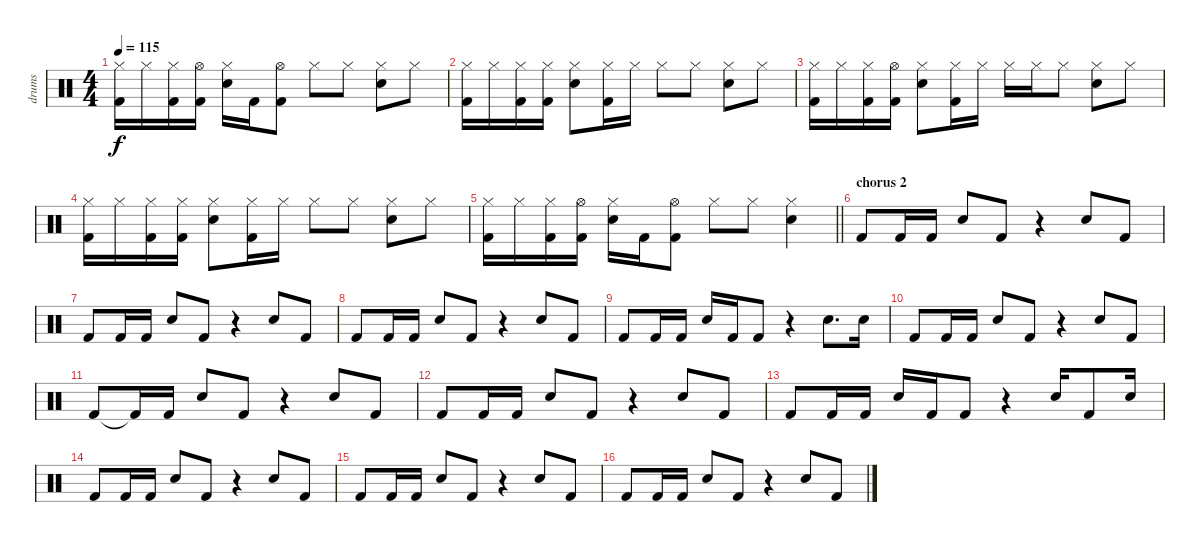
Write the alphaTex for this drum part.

\track ("drums" "drums") {instrument percussion}
\staff {score}
\articulation defaults
\ts (4 4)
\tempo 115
\clef neutral
\ks c
("Hi-Hat (closed)" "Kick (hit) 2").16{dy f} "Hi-Hat (closed)".16 ("Hi-Hat (closed)" "Kick (hit) 2").16 ("Hi-Hat (open)" "Kick (hit) 2").16 ("Hi-Hat (closed)" "Snare (hit) 2").16 "Kick (hit) 2".16 ("Hi-Hat (open)" "Kick (hit) 2").8 "Hi-Hat (closed)".8 "Hi-Hat (closed)".8 ("Hi-Hat (closed)" "Snare (hit) 2").8 "Hi-Hat (closed)".8 |
("Hi-Hat (closed)" "Kick (hit) 2").16 "Hi-Hat (closed)".16 ("Hi-Hat (closed)" "Kick (hit) 2").16 ("Hi-Hat (closed)" "Kick (hit) 2").16 ("Hi-Hat (closed)" "Snare (hit) 2").8 ("Hi-Hat (closed)" "Kick (hit) 2").16 "Hi-Hat (closed)".16 "Hi-Hat (closed)".8 "Hi-Hat (closed)".8 ("Hi-Hat (closed)" "Snare (hit) 2").8 "Hi-Hat (closed)".8 |
("Hi-Hat (closed)" "Kick (hit) 2").16 "Hi-Hat (closed)".16 ("Hi-Hat (closed)" "Kick (hit) 2").16 ("Hi-Hat (open)" "Kick (hit) 2").16 ("Hi-Hat (closed)" "Snare (hit) 2").8 ("Hi-Hat (closed)" "Kick (hit) 2").16 "Hi-Hat (closed)".16 "Hi-Hat (closed)".16 "Hi-Hat (closed)".16 "Hi-Hat (closed)".8 ("Hi-Hat (closed)" "Snare (hit) 2").8 "Hi-Hat (closed)".8 |
("Hi-Hat (closed)" "Kick (hit) 2").16 "Hi-Hat (closed)".16 ("Hi-Hat (closed)" "Kick (hit) 2").16 ("Hi-Hat (closed)" "Kick (hit) 2").16 ("Hi-Hat (closed)" "Snare (hit) 2").8 ("Hi-Hat (closed)" "Kick (hit) 2").16 "Hi-Hat (closed)".16 "Hi-Hat (closed)".8 "Hi-Hat (closed)".8 ("Hi-Hat (closed)" "Snare (hit) 2").8 "Hi-Hat (closed)".8 |
\barLineRight lightlight
("Hi-Hat (closed)" "Kick (hit) 2").16 "Hi-Hat (closed)".16 ("Hi-Hat (closed)" "Kick (hit) 2").16 ("Hi-Hat (open)" "Kick (hit) 2").16 ("Hi-Hat (closed)" "Snare (hit) 2").16 "Kick (hit) 2".16 ("Hi-Hat (open)" "Kick (hit) 2").8 "Hi-Hat (closed)".8 "Hi-Hat (closed)".8 ("Hi-Hat (closed)" "Snare (hit) 2").4 |
\section ("" "chorus 2")
"Kick (hit) 2".8 "Kick (hit) 2".16 "Kick (hit) 2".16 "Snare (hit) 2".8 "Kick (hit) 2".8 r.4 "Snare (hit) 2".8 "Kick (hit) 2".8 |
"Kick (hit) 2".8 "Kick (hit) 2".16 "Kick (hit) 2".16 "Snare (hit) 2".8 "Kick (hit) 2".8 r.4 "Snare (hit) 2".8 "Kick (hit) 2".8 |
"Kick (hit) 2".8 "Kick (hit) 2".16 "Kick (hit) 2".16 "Snare (hit) 2".8 "Kick (hit) 2".8 r.4 "Snare (hit) 2".8 "Kick (hit) 2".8 |
"Kick (hit) 2".8 "Kick (hit) 2".16 "Kick (hit) 2".16 "Snare (hit) 2".16 "Kick (hit) 2".16 "Kick (hit) 2".8 r.4 "Snare (hit) 2".8{d} "Snare (hit) 2".16 |
"Kick (hit) 2".8 "Kick (hit) 2".16 "Kick (hit) 2".16 "Snare (hit) 2".8 "Kick (hit) 2".8 r.4 "Snare (hit) 2".8 "Kick (hit) 2".8 |
"Kick (hit) 2".8 "Kick (hit) 2"{t}.16 "Kick (hit) 2".16 "Snare (hit) 2".8 "Kick (hit) 2".8 r.4 "Snare (hit) 2".8 "Kick (hit) 2".8 |
"Kick (hit) 2".8 "Kick (hit) 2".16 "Kick (hit) 2".16 "Snare (hit) 2".8 "Kick (hit) 2".8 r.4 "Snare (hit) 2".8 "Kick (hit) 2".8 |
"Kick (hit) 2".8 "Kick (hit) 2".16 "Kick (hit) 2".16 "Snare (hit) 2".16 "Kick (hit) 2".16 "Kick (hit) 2".8 r.4 "Snare (hit) 2".16 "Kick (hit) 2".8 "Snare (hit) 2".16 |
"Kick (hit) 2".8 "Kick (hit) 2".16 "Kick (hit) 2".16 "Snare (hit) 2".8 "Kick (hit) 2".8 r.4 "Snare (hit) 2".8 "Kick (hit) 2".8 |
"Kick (hit) 2".8 "Kick (hit) 2".16 "Kick (hit) 2".16 "Snare (hit) 2".8 "Kick (hit) 2".8 r.4 "Snare (hit) 2".8 "Kick (hit) 2".8 |
"Kick (hit) 2".8 "Kick (hit) 2".16 "Kick (hit) 2".16 "Snare (hit) 2".8 "Kick (hit) 2".8 r.4 "Snare (hit) 2".8 "Kick (hit) 2".8
